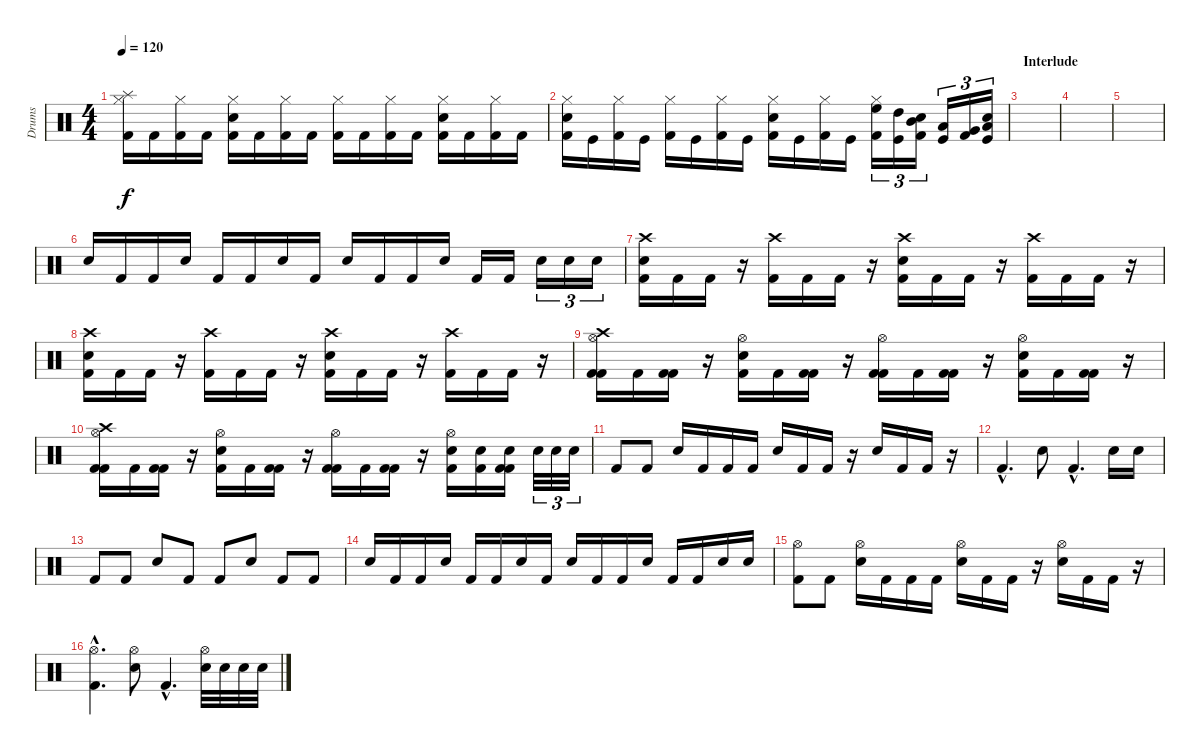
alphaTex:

\track ("Drums" "Drums") {instrument percussion}
\staff {score}
\articulation defaults
\ts (4 4)
\tempo 120
\clef neutral
\ks c
("Splash (hit)" "Hi-Hat (closed)" "Kick (hit) 2").16{dy f} "Kick (hit) 2".16 ("Hi-Hat (closed)" "Kick (hit) 2").16 "Kick (hit) 2".16 ("Hi-Hat (closed)" "Electric Snare (hit)" "Kick (hit) 2").16 "Kick (hit) 2".16 ("Hi-Hat (closed)" "Kick (hit) 2").16 "Kick (hit) 2".16 ("Hi-Hat (closed)" "Kick (hit) 2").16 "Kick (hit) 2".16 ("Hi-Hat (closed)" "Kick (hit) 2").16 "Kick (hit) 2".16 ("Hi-Hat (closed)" "Electric Snare (hit)" "Kick (hit) 2").16 "Kick (hit) 2".16 ("Hi-Hat (closed)" "Kick (hit) 2").16 "Kick (hit) 2".16 |
("Hi-Hat (closed)" "Electric Snare (hit)" "Kick (hit) 2").16 "Kick (hit)".16 ("Hi-Hat (closed)" "Kick (hit) 2").16 "Kick (hit)".16 ("Hi-Hat (closed)" "Kick (hit) 2").16 "Kick (hit)".16 ("Hi-Hat (closed)" "Kick (hit) 2").16 "Kick (hit)".16 ("Hi-Hat (closed)" "Electric Snare (hit)" "Kick (hit) 2").16 "Kick (hit)".16 ("Hi-Hat (closed)" "Kick (hit) 2").16 "Kick (hit)".16 ("Hi-Hat (closed)" "High Floor Tom (hit)" "Kick (hit) 2").16{tu (3 2)} ("High Tom (hit)" "Kick (hit)").16{tu (3 2)} ("Electric Snare (hit)" "Mid Tom (hit)" "Kick (hit) 2").16{tu (3 2)} ("Low Tom (hit)" "Kick (hit)").16{tu (3 2)} ("Very Low Tom (hit)" "Kick (hit) 2").16{tu (3 2)} ("Electric Snare (hit)" "Low Floor Tom (hit)" "Kick (hit)").16{tu (3 2)} |
\section ("" "Interlude")
|
|
|
"Electric Snare (hit)".16 "Kick (hit) 2".16 "Kick (hit) 2".16 "Electric Snare (hit)".16 "Kick (hit) 2".16 "Kick (hit) 2".16 "Electric Snare (hit)".16 "Kick (hit) 2".16 "Electric Snare (hit)".16 "Kick (hit) 2".16 "Kick (hit) 2".16 "Electric Snare (hit)".16 "Kick (hit) 2".16 "Kick (hit) 2".16 "Electric Snare (hit)".16{tu (3 2)} "Electric Snare (hit)".16{tu (3 2)} "Electric Snare (hit)".16{tu (3 2)} |
("Crash high (hit)" "Electric Snare (hit)" "Kick (hit) 2").16 "Kick (hit) 2".16 "Kick (hit) 2".16 r.16 ("Crash high (hit)" "Kick (hit) 2").16 "Kick (hit) 2".16 "Kick (hit) 2".16 r.16 ("Crash high (hit)" "Electric Snare (hit)" "Kick (hit) 2").16 "Kick (hit) 2".16 "Kick (hit) 2".16 r.16 ("Crash high (hit)" "Kick (hit) 2").16 "Kick (hit) 2".16 "Kick (hit) 2".16 r.16 |
("Crash high (hit)" "Electric Snare (hit)" "Kick (hit) 2").16 "Kick (hit) 2".16 "Kick (hit) 2".16 r.16 ("Crash high (hit)" "Kick (hit) 2").16 "Kick (hit) 2".16 "Kick (hit) 2".16 r.16 ("Crash high (hit)" "Electric Snare (hit)" "Kick (hit) 2").16 "Kick (hit) 2".16 "Kick (hit) 2".16 r.16 ("Crash high (hit)" "Kick (hit) 2").16 "Kick (hit) 2".16 "Kick (hit) 2".16 r.16 |
("Crash high (hit)" "Hi-Hat (open)" "Kick (hit) 2" "Kick (hit) 2").16 "Kick (hit) 2".16 ("Kick (hit) 2" "Kick (hit) 2").16 r.16 ("Hi-Hat (open)" "Electric Snare (hit)" "Kick (hit) 2").16 "Kick (hit) 2".16 ("Kick (hit) 2" "Kick (hit) 2").16 r.16 ("Hi-Hat (open)" "Kick (hit) 2" "Kick (hit) 2").16 "Kick (hit) 2".16 ("Kick (hit) 2" "Kick (hit) 2").16 r.16 ("Hi-Hat (open)" "Electric Snare (hit)" "Kick (hit) 2").16 "Kick (hit) 2".16 ("Kick (hit) 2" "Kick (hit) 2").16 r.16 |
("Crash high (hit)" "Hi-Hat (open)" "Kick (hit) 2" "Kick (hit) 2").16 "Kick (hit) 2".16 ("Kick (hit) 2" "Kick (hit) 2").16 r.16 ("Hi-Hat (open)" "Electric Snare (hit)" "Kick (hit) 2").16 "Kick (hit) 2".16 ("Kick (hit) 2" "Kick (hit) 2").16 r.16 ("Hi-Hat (open)" "Kick (hit) 2" "Kick (hit) 2").16 "Kick (hit) 2".16 ("Kick (hit) 2" "Kick (hit) 2").16 r.16 ("Hi-Hat (open)" "Electric Snare (hit)" "Kick (hit) 2").16 ("Electric Snare (hit)" "Kick (hit) 2").16 ("Electric Snare (hit)" "Kick (hit) 2" "Kick (hit) 2").16 "Electric Snare (hit)".32{tu (3 2)} "Electric Snare (hit)".32{tu (3 2)} "Electric Snare (hit)".32{tu (3 2)} |
"Kick (hit) 2".8 "Kick (hit) 2".8 "Electric Snare (hit)".16 "Kick (hit) 2".16 "Kick (hit) 2".16 "Kick (hit) 2".16 "Electric Snare (hit)".16 "Kick (hit) 2".16 "Kick (hit) 2".16 r.16 "Electric Snare (hit)".16 "Kick (hit) 2".16 "Kick (hit) 2".16 r.16 |
"Kick (hit) 2"{hac}.4{d} "Electric Snare (hit)".8 "Kick (hit) 2"{hac}.4{d} "Electric Snare (hit)".16 "Electric Snare (hit)".16 |
"Kick (hit) 2".8 "Kick (hit) 2".8 "Electric Snare (hit)".8 "Kick (hit) 2".8 "Kick (hit) 2".8 "Electric Snare (hit)".8 "Kick (hit) 2".8 "Kick (hit) 2".8 |
"Electric Snare (hit)".16 "Kick (hit) 2".16 "Kick (hit) 2".16 "Electric Snare (hit)".16 "Kick (hit) 2".16 "Kick (hit) 2".16 "Electric Snare (hit)".16 "Kick (hit) 2".16 "Electric Snare (hit)".16 "Kick (hit) 2".16 "Kick (hit) 2".16 "Electric Snare (hit)".16 "Kick (hit) 2".16 "Kick (hit) 2".16 "Electric Snare (hit)".16 "Electric Snare (hit)".16 |
("Hi-Hat (open)" "Kick (hit) 2").8 "Kick (hit) 2".8 ("Hi-Hat (open)" "Electric Snare (hit)").16 "Kick (hit) 2".16 "Kick (hit) 2".16 "Kick (hit) 2".16 ("Hi-Hat (open)" "Electric Snare (hit)").16 "Kick (hit) 2".16 "Kick (hit) 2".16 r.16 ("Hi-Hat (open)" "Electric Snare (hit)").16 "Kick (hit) 2".16 "Kick (hit) 2".16 r.16 |
("Hi-Hat (open)"{hac} "Kick (hit) 2"{hac}).4{d} ("Hi-Hat (open)" "Electric Snare (hit)").8 "Kick (hit) 2"{hac}.4{d} ("Hi-Hat (open)" "Electric Snare (hit)").32 "Electric Snare (hit)".32 "Electric Snare (hit)".32 "Electric Snare (hit)".32
